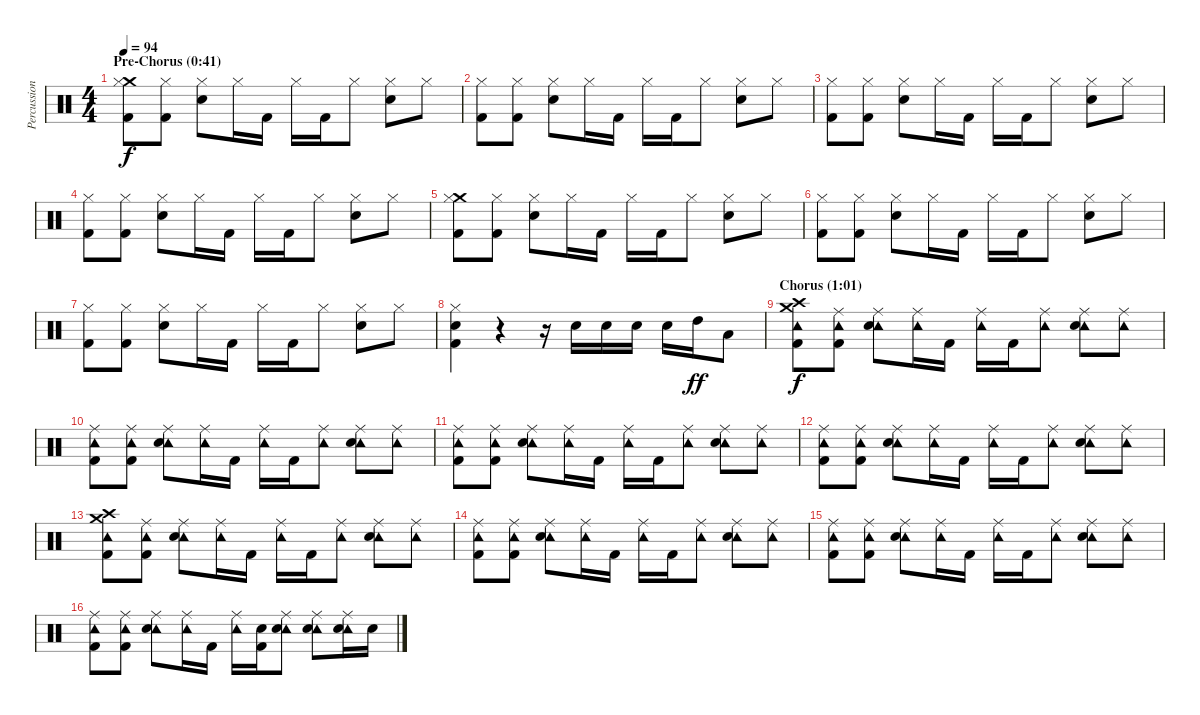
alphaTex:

\track ("Percussion" "Percussion") {instrument percussion}
\staff {score}
\articulation defaults
\ts (4 4)
\section ("" "Pre-Chorus (0:41)")
\tempo 94
\clef neutral
\ks c
("Crash medium (hit)" "Hi-Hat (closed)" "Kick (hit) 2").8{dy f} ("Hi-Hat (closed)" "Kick (hit) 2").8 ("Hi-Hat (closed)" "Snare (hit) 2").8 "Hi-Hat (closed)".16 "Kick (hit) 2".16 "Hi-Hat (closed)".16 "Kick (hit) 2".16 "Hi-Hat (closed)".8 ("Hi-Hat (closed)" "Snare (hit) 2").8 "Hi-Hat (closed)".8 |
("Hi-Hat (closed)" "Kick (hit) 2").8 ("Hi-Hat (closed)" "Kick (hit) 2").8 ("Hi-Hat (closed)" "Snare (hit) 2").8 "Hi-Hat (closed)".16 "Kick (hit) 2".16 "Hi-Hat (closed)".16 "Kick (hit) 2".16 "Hi-Hat (closed)".8 ("Hi-Hat (closed)" "Snare (hit) 2").8 "Hi-Hat (closed)".8 |
("Hi-Hat (closed)" "Kick (hit) 2").8 ("Hi-Hat (closed)" "Kick (hit) 2").8 ("Hi-Hat (closed)" "Snare (hit) 2").8 "Hi-Hat (closed)".16 "Kick (hit) 2".16 "Hi-Hat (closed)".16 "Kick (hit) 2".16 "Hi-Hat (closed)".8 ("Hi-Hat (closed)" "Snare (hit) 2").8 "Hi-Hat (closed)".8 |
("Hi-Hat (closed)" "Kick (hit) 2").8 ("Hi-Hat (closed)" "Kick (hit) 2").8 ("Hi-Hat (closed)" "Snare (hit) 2").8 "Hi-Hat (closed)".16 "Kick (hit) 2".16 "Hi-Hat (closed)".16 "Kick (hit) 2".16 "Hi-Hat (closed)".8 ("Hi-Hat (closed)" "Snare (hit) 2").8 "Hi-Hat (closed)".8 |
("Crash medium (hit)" "Hi-Hat (closed)" "Kick (hit) 2").8 ("Hi-Hat (closed)" "Kick (hit) 2").8 ("Hi-Hat (closed)" "Snare (hit) 2").8 "Hi-Hat (closed)".16 "Kick (hit) 2".16 "Hi-Hat (closed)".16 "Kick (hit) 2".16 "Hi-Hat (closed)".8 ("Hi-Hat (closed)" "Snare (hit) 2").8 "Hi-Hat (closed)".8 |
("Hi-Hat (closed)" "Kick (hit) 2").8 ("Hi-Hat (closed)" "Kick (hit) 2").8 ("Hi-Hat (closed)" "Snare (hit) 2").8 "Hi-Hat (closed)".16 "Kick (hit) 2".16 "Hi-Hat (closed)".16 "Kick (hit) 2".16 "Hi-Hat (closed)".8 ("Hi-Hat (closed)" "Snare (hit) 2").8 "Hi-Hat (closed)".8 |
("Hi-Hat (closed)" "Kick (hit) 2").8 ("Hi-Hat (closed)" "Kick (hit) 2").8 ("Hi-Hat (closed)" "Snare (hit) 2").8 "Hi-Hat (closed)".16 "Kick (hit) 2".16 "Hi-Hat (closed)".16 "Kick (hit) 2".16 "Hi-Hat (closed)".8 ("Hi-Hat (closed)" "Snare (hit) 2").8 "Hi-Hat (closed)".8 |
("Hi-Hat (closed)" "Snare (hit) 2" "Kick (hit) 2").4 r.4 r.16 "Snare (hit) 2".16 "Snare (hit) 2".16 "Snare (hit) 2".16 "Snare (hit) 2".16 "High Tom (hit)".16{dy ff} "Low Tom (hit)".8 |
\section ("" "Chorus (1:01)")
("Crash high (hit)" "Crash medium (hit)" "Tambourine (hit)" "Kick (hit) 2").8{dy f} ("Ride (middle)" "Tambourine (hit)" "Kick (hit) 2").8 ("Ride (middle)" "Tambourine (hit)" "Snare (hit) 2").8 ("Ride (middle)" "Tambourine (hit)").16 "Kick (hit) 2".16 ("Ride (middle)" "Tambourine (hit)").16 "Kick (hit) 2".16 ("Ride (middle)" "Tambourine (hit)").8 ("Ride (middle)" "Tambourine (hit)" "Snare (hit) 2").8 ("Ride (middle)" "Tambourine (hit)").8 |
("Ride (middle)" "Tambourine (hit)" "Kick (hit) 2").8 ("Ride (middle)" "Tambourine (hit)" "Kick (hit) 2").8 ("Ride (middle)" "Tambourine (hit)" "Snare (hit) 2").8 ("Ride (middle)" "Tambourine (hit)").16 "Kick (hit) 2".16 ("Ride (middle)" "Tambourine (hit)").16 "Kick (hit) 2".16 ("Ride (middle)" "Tambourine (hit)").8 ("Ride (middle)" "Tambourine (hit)" "Snare (hit) 2").8 ("Ride (middle)" "Tambourine (hit)").8 |
("Ride (middle)" "Tambourine (hit)" "Kick (hit) 2").8 ("Ride (middle)" "Tambourine (hit)" "Kick (hit) 2").8 ("Ride (middle)" "Tambourine (hit)" "Snare (hit) 2").8 ("Ride (middle)" "Tambourine (hit)").16 "Kick (hit) 2".16 ("Ride (middle)" "Tambourine (hit)").16 "Kick (hit) 2".16 ("Ride (middle)" "Tambourine (hit)").8 ("Ride (middle)" "Tambourine (hit)" "Snare (hit) 2").8 ("Ride (middle)" "Tambourine (hit)").8 |
("Ride (middle)" "Tambourine (hit)" "Kick (hit) 2").8 ("Ride (middle)" "Tambourine (hit)" "Kick (hit) 2").8 ("Ride (middle)" "Tambourine (hit)" "Snare (hit) 2").8 ("Ride (middle)" "Tambourine (hit)").16 "Kick (hit) 2".16 ("Ride (middle)" "Tambourine (hit)").16 "Kick (hit) 2".16 ("Ride (middle)" "Tambourine (hit)").8 ("Ride (middle)" "Tambourine (hit)" "Snare (hit) 2").8 ("Ride (middle)" "Tambourine (hit)").8 |
("Crash high (hit)" "Crash medium (hit)" "Tambourine (hit)" "Kick (hit) 2").8 ("Ride (middle)" "Tambourine (hit)" "Kick (hit) 2").8 ("Ride (middle)" "Tambourine (hit)" "Snare (hit) 2").8 ("Ride (middle)" "Tambourine (hit)").16 "Kick (hit) 2".16 ("Ride (middle)" "Tambourine (hit)").16 "Kick (hit) 2".16 ("Ride (middle)" "Tambourine (hit)").8 ("Ride (middle)" "Tambourine (hit)" "Snare (hit) 2").8 ("Ride (middle)" "Tambourine (hit)").8 |
("Ride (middle)" "Tambourine (hit)" "Kick (hit) 2").8 ("Ride (middle)" "Tambourine (hit)" "Kick (hit) 2").8 ("Ride (middle)" "Tambourine (hit)" "Snare (hit) 2").8 ("Ride (middle)" "Tambourine (hit)").16 "Kick (hit) 2".16 ("Ride (middle)" "Tambourine (hit)").16 "Kick (hit) 2".16 ("Ride (middle)" "Tambourine (hit)").8 ("Ride (middle)" "Tambourine (hit)" "Snare (hit) 2").8 ("Ride (middle)" "Tambourine (hit)").8 |
("Ride (middle)" "Tambourine (hit)" "Kick (hit) 2").8 ("Ride (middle)" "Tambourine (hit)" "Kick (hit) 2").8 ("Ride (middle)" "Tambourine (hit)" "Snare (hit) 2").8 ("Ride (middle)" "Tambourine (hit)").16 "Kick (hit) 2".16 ("Ride (middle)" "Tambourine (hit)").16 "Kick (hit) 2".16 ("Ride (middle)" "Tambourine (hit)").8 ("Ride (middle)" "Tambourine (hit)" "Snare (hit) 2").8 ("Ride (middle)" "Tambourine (hit)").8 |
("Ride (middle)" "Tambourine (hit)" "Kick (hit) 2").8 ("Ride (middle)" "Tambourine (hit)" "Kick (hit) 2").8 ("Ride (middle)" "Tambourine (hit)" "Snare (hit) 2").8 ("Ride (middle)" "Tambourine (hit)").16 "Kick (hit) 2".16 ("Ride (middle)" "Tambourine (hit)").16 ("Snare (hit) 2" "Kick (hit) 2").16 ("Ride (middle)" "Tambourine (hit)" "Snare (hit) 2").8 ("Ride (middle)" "Tambourine (hit)" "Snare (hit) 2").8 ("Ride (middle)" "Tambourine (hit)" "Snare (hit) 2").16 "Snare (hit) 2".16
